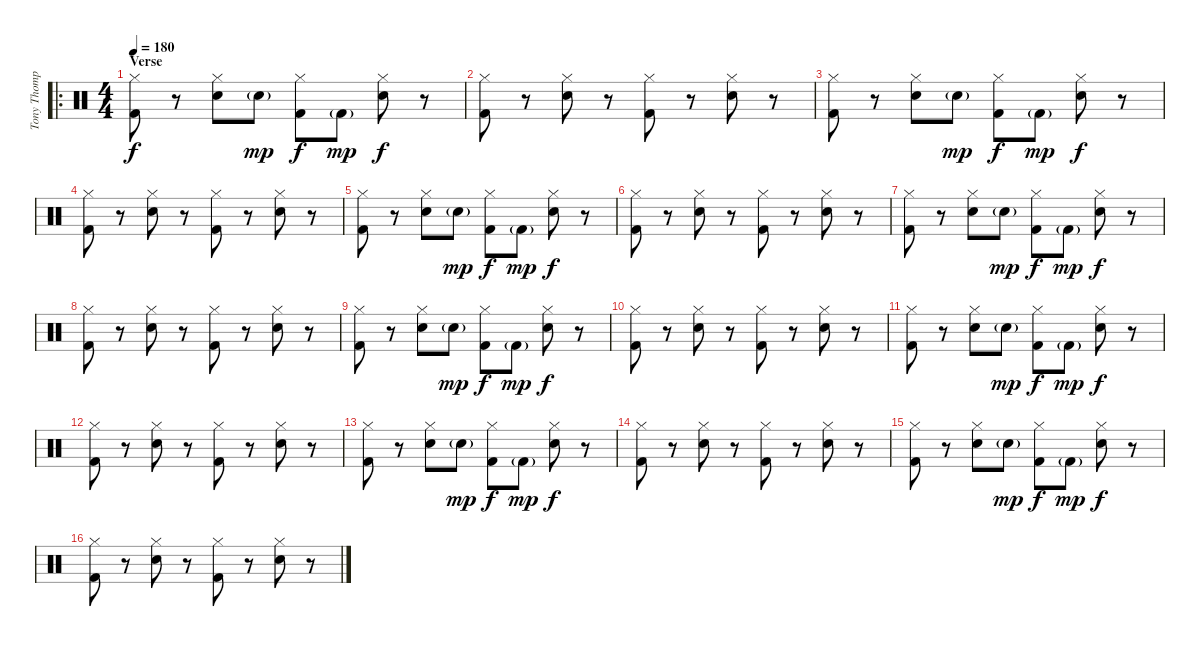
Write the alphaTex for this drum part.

\track ("Tony Thompson (Drums)" "Tony Thomp") {instrument percussion}
\staff {score}
\articulation defaults
\ro
\ts (4 4)
\section ("" "Verse")
\tempo 180
\clef neutral
\ks c
("Hi-Hat (closed)" "Kick (hit) 2").8{dy f} r.8 ("Hi-Hat (closed)" "Electric Snare (hit)").8 "Electric Snare (hit)"{g}.8{dy mp} ("Hi-Hat (closed)" "Kick (hit) 2").8{dy f} "Kick (hit) 2"{g}.8{dy mp} ("Hi-Hat (closed)" "Electric Snare (hit)").8{dy f} r.8 |
("Hi-Hat (closed)" "Kick (hit) 2").8 r.8 ("Hi-Hat (closed)" "Electric Snare (hit)").8 r.8 ("Hi-Hat (closed)" "Kick (hit) 2").8 r.8 ("Hi-Hat (closed)" "Electric Snare (hit)").8 r.8 |
("Hi-Hat (closed)" "Kick (hit) 2").8 r.8 ("Hi-Hat (closed)" "Electric Snare (hit)").8 "Electric Snare (hit)"{g}.8{dy mp} ("Hi-Hat (closed)" "Kick (hit) 2").8{dy f} "Kick (hit) 2"{g}.8{dy mp} ("Hi-Hat (closed)" "Electric Snare (hit)").8{dy f} r.8 |
("Hi-Hat (closed)" "Kick (hit) 2").8 r.8 ("Hi-Hat (closed)" "Electric Snare (hit)").8 r.8 ("Hi-Hat (closed)" "Kick (hit) 2").8 r.8 ("Hi-Hat (closed)" "Electric Snare (hit)").8 r.8 |
("Hi-Hat (closed)" "Kick (hit) 2").8 r.8 ("Hi-Hat (closed)" "Electric Snare (hit)").8 "Electric Snare (hit)"{g}.8{dy mp} ("Hi-Hat (closed)" "Kick (hit) 2").8{dy f} "Kick (hit) 2"{g}.8{dy mp} ("Hi-Hat (closed)" "Electric Snare (hit)").8{dy f} r.8 |
("Hi-Hat (closed)" "Kick (hit) 2").8 r.8 ("Hi-Hat (closed)" "Electric Snare (hit)").8 r.8 ("Hi-Hat (closed)" "Kick (hit) 2").8 r.8 ("Hi-Hat (closed)" "Electric Snare (hit)").8 r.8 |
("Hi-Hat (closed)" "Kick (hit) 2").8 r.8 ("Hi-Hat (closed)" "Electric Snare (hit)").8 "Electric Snare (hit)"{g}.8{dy mp} ("Hi-Hat (closed)" "Kick (hit) 2").8{dy f} "Kick (hit) 2"{g}.8{dy mp} ("Hi-Hat (closed)" "Electric Snare (hit)").8{dy f} r.8 |
("Hi-Hat (closed)" "Kick (hit) 2").8 r.8 ("Hi-Hat (closed)" "Electric Snare (hit)").8 r.8 ("Hi-Hat (closed)" "Kick (hit) 2").8 r.8 ("Hi-Hat (closed)" "Electric Snare (hit)").8 r.8 |
("Hi-Hat (closed)" "Kick (hit) 2").8 r.8 ("Hi-Hat (closed)" "Electric Snare (hit)").8 "Electric Snare (hit)"{g}.8{dy mp} ("Hi-Hat (closed)" "Kick (hit) 2").8{dy f} "Kick (hit) 2"{g}.8{dy mp} ("Hi-Hat (closed)" "Electric Snare (hit)").8{dy f} r.8 |
("Hi-Hat (closed)" "Kick (hit) 2").8 r.8 ("Hi-Hat (closed)" "Electric Snare (hit)").8 r.8 ("Hi-Hat (closed)" "Kick (hit) 2").8 r.8 ("Hi-Hat (closed)" "Electric Snare (hit)").8 r.8 |
("Hi-Hat (closed)" "Kick (hit) 2").8 r.8 ("Hi-Hat (closed)" "Electric Snare (hit)").8 "Electric Snare (hit)"{g}.8{dy mp} ("Hi-Hat (closed)" "Kick (hit) 2").8{dy f} "Kick (hit) 2"{g}.8{dy mp} ("Hi-Hat (closed)" "Electric Snare (hit)").8{dy f} r.8 |
("Hi-Hat (closed)" "Kick (hit) 2").8 r.8 ("Hi-Hat (closed)" "Electric Snare (hit)").8 r.8 ("Hi-Hat (closed)" "Kick (hit) 2").8 r.8 ("Hi-Hat (closed)" "Electric Snare (hit)").8 r.8 |
("Hi-Hat (closed)" "Kick (hit) 2").8 r.8 ("Hi-Hat (closed)" "Electric Snare (hit)").8 "Electric Snare (hit)"{g}.8{dy mp} ("Hi-Hat (closed)" "Kick (hit) 2").8{dy f} "Kick (hit) 2"{g}.8{dy mp} ("Hi-Hat (closed)" "Electric Snare (hit)").8{dy f} r.8 |
("Hi-Hat (closed)" "Kick (hit) 2").8 r.8 ("Hi-Hat (closed)" "Electric Snare (hit)").8 r.8 ("Hi-Hat (closed)" "Kick (hit) 2").8 r.8 ("Hi-Hat (closed)" "Electric Snare (hit)").8 r.8 |
("Hi-Hat (closed)" "Kick (hit) 2").8 r.8 ("Hi-Hat (closed)" "Electric Snare (hit)").8 "Electric Snare (hit)"{g}.8{dy mp} ("Hi-Hat (closed)" "Kick (hit) 2").8{dy f} "Kick (hit) 2"{g}.8{dy mp} ("Hi-Hat (closed)" "Electric Snare (hit)").8{dy f} r.8 |
("Hi-Hat (closed)" "Kick (hit) 2").8 r.8 ("Hi-Hat (closed)" "Electric Snare (hit)").8 r.8 ("Hi-Hat (closed)" "Kick (hit) 2").8 r.8 ("Hi-Hat (closed)" "Electric Snare (hit)").8 r.8
